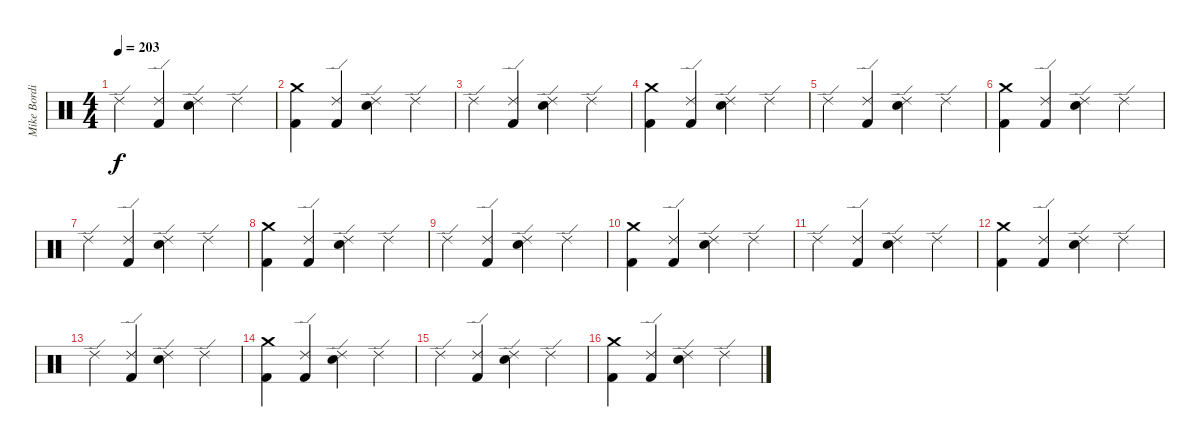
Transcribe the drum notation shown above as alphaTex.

\track ("Mike Bordin" "Mike Bordi") {instrument percussion}
\staff {score}
\articulation defaults
\ts (4 4)
\tempo 203
\clef neutral
\ks c "Ride (edge) 2".4{dy f}
("Ride (edge) 2" "Kick (hit) 2").4 ("Ride (edge) 2" "Snare (hit) 2").4 "Ride (edge) 2".4 |
("Crash medium (hit)" "Kick (hit) 2").4 ("Ride (edge) 2" "Kick (hit) 2").4 ("Ride (edge) 2" "Snare (hit) 2").4 "Ride (edge) 2".4 |
"Ride (edge) 2".4 ("Ride (edge) 2" "Kick (hit) 2").4 ("Ride (edge) 2" "Snare (hit) 2").4 "Ride (edge) 2".4 |
("Crash medium (hit)" "Kick (hit) 2").4 ("Ride (edge) 2" "Kick (hit) 2").4 ("Ride (edge) 2" "Snare (hit) 2").4 "Ride (edge) 2".4 |
"Ride (edge) 2".4 ("Ride (edge) 2" "Kick (hit) 2").4 ("Ride (edge) 2" "Snare (hit) 2").4 "Ride (edge) 2".4 |
("Crash medium (hit)" "Kick (hit) 2").4 ("Ride (edge) 2" "Kick (hit) 2").4 ("Ride (edge) 2" "Snare (hit) 2").4 "Ride (edge) 2".4 |
"Ride (edge) 2".4 ("Ride (edge) 2" "Kick (hit) 2").4 ("Ride (edge) 2" "Snare (hit) 2").4 "Ride (edge) 2".4 |
("Crash medium (hit)" "Kick (hit) 2").4 ("Ride (edge) 2" "Kick (hit) 2").4 ("Ride (edge) 2" "Snare (hit) 2").4 "Ride (edge) 2".4 |
"Ride (edge) 2".4 ("Ride (edge) 2" "Kick (hit) 2").4 ("Ride (edge) 2" "Snare (hit) 2").4 "Ride (edge) 2".4 |
("Crash medium (hit)" "Kick (hit) 2").4 ("Ride (edge) 2" "Kick (hit) 2").4 ("Ride (edge) 2" "Snare (hit) 2").4 "Ride (edge) 2".4 |
"Ride (edge) 2".4 ("Ride (edge) 2" "Kick (hit) 2").4 ("Ride (edge) 2" "Snare (hit) 2").4 "Ride (edge) 2".4 |
("Crash medium (hit)" "Kick (hit) 2").4 ("Ride (edge) 2" "Kick (hit) 2").4 ("Ride (edge) 2" "Snare (hit) 2").4 "Ride (edge) 2".4 |
"Ride (edge) 2".4 ("Ride (edge) 2" "Kick (hit) 2").4 ("Ride (edge) 2" "Snare (hit) 2").4 "Ride (edge) 2".4 |
("Crash medium (hit)" "Kick (hit) 2").4 ("Ride (edge) 2" "Kick (hit) 2").4 ("Ride (edge) 2" "Snare (hit) 2").4 "Ride (edge) 2".4 |
"Ride (edge) 2".4 ("Ride (edge) 2" "Kick (hit) 2").4 ("Ride (edge) 2" "Snare (hit) 2").4 "Ride (edge) 2".4 |
("Crash medium (hit)" "Kick (hit) 2").4 ("Ride (edge) 2" "Kick (hit) 2").4 ("Ride (edge) 2" "Snare (hit) 2").4 "Ride (edge) 2".4
